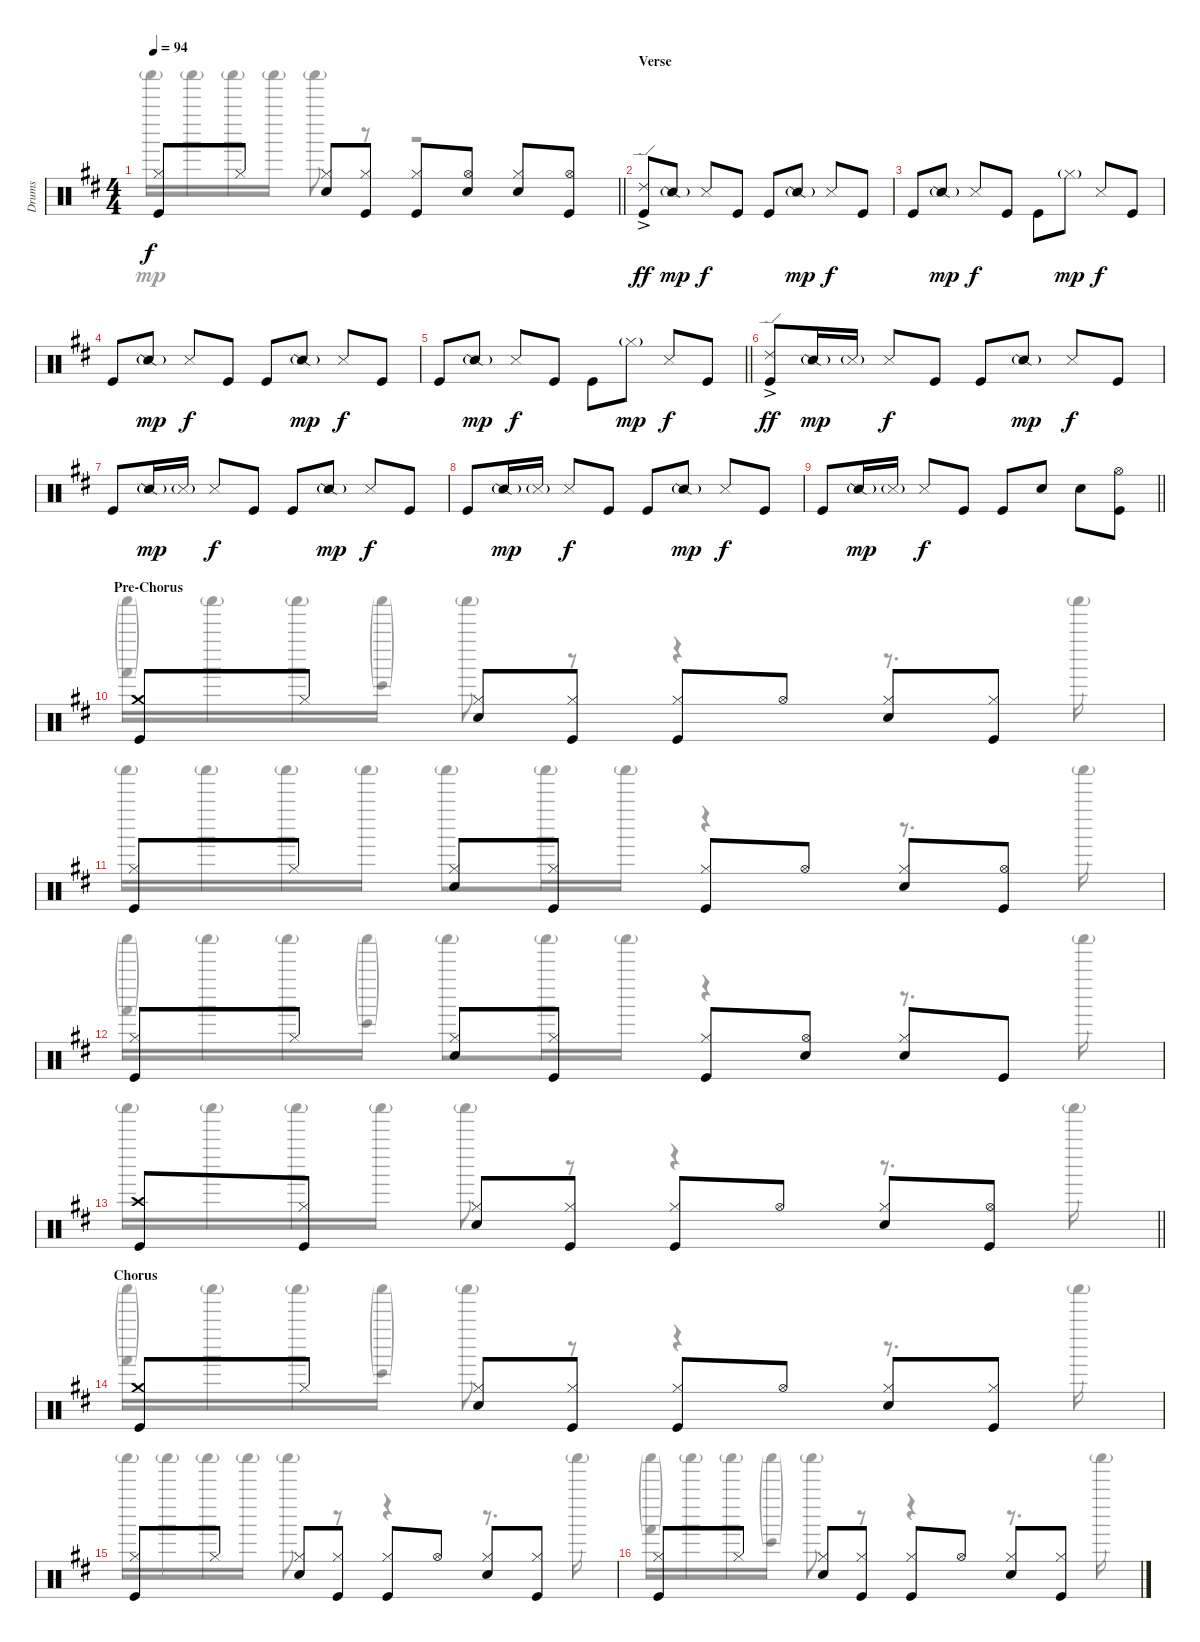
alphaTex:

\track ("Drums" "Drums") {instrument percussion}
\staff {score}
\articulation defaults
\voice
\ts (4 4)
\tempo 94
\clef neutral
\barLineRight lightlight
\ks d
("Hi-Hat (closed)" "Kick (hit)").8{dy f} "Hi-Hat (closed)".8 ("Hi-Hat (closed)" "Snare (hit) 2").8 ("Hi-Hat (closed)" "Kick (hit)").8 ("Hi-Hat (closed)" "Kick (hit)").8 ("Hi-Hat (open)" "Snare (hit) 2").8 ("Hi-Hat (closed)" "Snare (hit) 2").8 ("Hi-Hat (open)" "Kick (hit)").8 |
\section ("" "Verse")
("Ride (edge) 2"{ac} "Kick (hit)").8{dy ff} "Snare (side stick) 2"{g}.8{dy mp} "Snare (side stick) 3".8{dy f} "Kick (hit)".8 "Kick (hit)".8 "Snare (side stick) 2"{g}.8{dy mp} "Snare (side stick) 3".8{dy f} "Kick (hit)".8 |
"Kick (hit)".8 "Snare (side stick) 2"{g}.8{dy mp} "Snare (side stick) 3".8{dy f} "Kick (hit)".8 "Kick (hit)".8 "Hi-Hat (closed)"{g}.8{dy mp} "Snare (side stick) 3".8{dy f} "Kick (hit)".8 |
"Kick (hit)".8 "Snare (side stick) 2"{g}.8{dy mp} "Snare (side stick) 3".8{dy f} "Kick (hit)".8 "Kick (hit)".8 "Snare (side stick) 2"{g}.8{dy mp} "Snare (side stick) 3".8{dy f} "Kick (hit)".8 |
\barLineRight lightlight "Kick (hit)".8 "Snare (side stick) 2"{g}.8{dy mp} "Snare (side stick) 3".8{dy f} "Kick (hit)".8 "Kick (hit)".8 "Hi-Hat (closed)"{g}.8{dy mp} "Snare (side stick) 3".8{dy f} "Kick (hit)".8
|
\section ("" "")
("Ride (edge) 2"{ac} "Kick (hit)").8{dy ff} "Snare (side stick) 2"{g}.16{dy mp} "Metronome (hit)"{g}.16 "Snare (side stick) 3".8{dy f} "Kick (hit)".8 "Kick (hit)".8 "Snare (side stick) 2"{g}.8{dy mp} "Snare (side stick) 3".8{dy f} "Kick (hit)".8 |
"Kick (hit)".8 "Snare (side stick) 2"{g}.16{dy mp} "Metronome (hit)"{g}.16 "Snare (side stick) 3".8{dy f} "Kick (hit)".8 "Kick (hit)".8 "Snare (side stick) 2"{g}.8{dy mp} "Snare (side stick) 3".8{dy f} "Kick (hit)".8 |
"Kick (hit)".8 "Snare (side stick) 2"{g}.16{dy mp} "Metronome (hit)"{g}.16 "Snare (side stick) 3".8{dy f} "Kick (hit)".8 "Kick (hit)".8 "Snare (side stick) 2"{g}.8{dy mp} "Snare (side stick) 3".8{dy f} "Kick (hit)".8 |
\barLineRight lightlight "Kick (hit)".8 "Snare (side stick) 2"{g}.16{dy mp} "Metronome (hit)"{g}.16 "Snare (side stick) 3".8{dy f} "Kick (hit)".8 "Kick (hit)".8 "Snare (hit) 2".8 "Snare (hit) 2".8
("Hi-Hat (open)" "Kick (hit)").8 |
\section ("" "Pre-Chorus")
("Crash medium (hit)" "Kick (hit)").8 "Hi-Hat (closed)".8 ("Hi-Hat (closed)" "Snare (hit) 2").8 ("Hi-Hat (closed)" "Kick (hit)").8 ("Hi-Hat (closed)" "Kick (hit)").8 "Hi-Hat (open)".8 ("Hi-Hat (closed)" "Snare (hit) 2").8 ("Hi-Hat (closed)" "Kick (hit)").8 |
("Hi-Hat (closed)" "Kick (hit)").8 "Hi-Hat (closed)".8 ("Hi-Hat (closed)" "Snare (hit) 2").8 ("Hi-Hat (closed)" "Kick (hit)").8 ("Hi-Hat (closed)" "Kick (hit)").8 "Hi-Hat (open)".8 ("Hi-Hat (closed)" "Snare (hit) 2").8 ("Hi-Hat (open)" "Kick (hit)").8 |
("Hi-Hat (closed)" "Kick (hit)").8 "Hi-Hat (closed)".8 ("Hi-Hat (closed)" "Snare (hit) 2").8 ("Hi-Hat (closed)" "Kick (hit)").8 ("Hi-Hat (closed)" "Kick (hit)").8 ("Hi-Hat (open)" "Snare (hit) 2").8 ("Hi-Hat (closed)" "Snare (hit) 2").8 "Kick (hit)".8 |
\barLineRight lightlight
("Crash high (hit)" "Kick (hit)").8 ("Hi-Hat (closed)" "Kick (hit)").8 ("Hi-Hat (closed)" "Snare (hit) 2").8 ("Hi-Hat (closed)" "Kick (hit)").8 ("Hi-Hat (closed)" "Kick (hit)").8 "Hi-Hat (open)".8 ("Hi-Hat (closed)" "Snare (hit) 2").8 ("Hi-Hat (open)" "Kick (hit)").8 |
\section ("" "Chorus")
("Crash medium (hit)" "Kick (hit)").8 "Hi-Hat (closed)".8 ("Hi-Hat (closed)" "Snare (hit) 2").8 ("Hi-Hat (closed)" "Kick (hit)").8 ("Hi-Hat (closed)" "Kick (hit)").8 "Hi-Hat (open)".8 ("Hi-Hat (closed)" "Snare (hit) 2").8 ("Hi-Hat (closed)" "Kick (hit)").8 |
("Hi-Hat (closed)" "Kick (hit)").8 "Hi-Hat (closed)".8 ("Hi-Hat (closed)" "Snare (hit) 2").8 ("Hi-Hat (closed)" "Kick (hit)").8 ("Hi-Hat (closed)" "Kick (hit)").8 "Hi-Hat (open)".8 ("Hi-Hat (closed)" "Snare (hit) 2").8 ("Hi-Hat (closed)" "Kick (hit)").8 |
("Hi-Hat (closed)" "Kick (hit)").8 "Hi-Hat (closed)".8 ("Hi-Hat (closed)" "Snare (hit) 2").8 ("Hi-Hat (closed)" "Kick (hit)").8 ("Hi-Hat (closed)" "Kick (hit)").8 "Hi-Hat (open)".8 ("Hi-Hat (closed)" "Snare (hit) 2").8 ("Hi-Hat (closed)" "Kick (hit)").8
\voice
\clef neutral
\ottava regular
\simile none
\barLineRight lightlight
\ks d "Shaker (hit)"{g}.16{dy mp} "Shaker (hit)"{g}.16 "Shaker (hit)"{g}.16 "Shaker (hit)"{g}.16 "Shaker (hit)"{g}.8
r.8 r.2 |
|
|
|
\barLineRight lightlight
|
|
|
|
\barLineRight lightlight
|
("Shaker (hit)"{g} "Hand (hit)"{g}).16 "Shaker (hit)"{g}.16 "Shaker (hit)"{g}.16 ("Shaker (hit)"{g} "Bongo High (hit)"{g}).16 "Shaker (hit)"{g}.8 r.8 r.4 r.8{d} "Shaker (hit)"{g}.16 |
"Shaker (hit)"{g}.16 "Shaker (hit)"{g}.16 "Shaker (hit)"{g}.16 "Shaker (hit)"{g}.16 "Shaker (hit)"{g}.8 "Shaker (hit)"{g}.16 "Shaker (hit)"{g}.16 r.4 r.8{d} "Shaker (hit)"{g}.16 |
("Shaker (hit)"{g} "Hand (hit)"{g}).16 "Shaker (hit)"{g}.16 "Shaker (hit)"{g}.16 ("Shaker (hit)"{g} "Bongo High (hit)"{g}).16 "Shaker (hit)"{g}.8 "Shaker (hit)"{g}.16 "Shaker (hit)"{g}.16 r.4 r.8{d} "Shaker (hit)"{g}.16 |
\barLineRight lightlight "Shaker (hit)"{g}.16 "Shaker (hit)"{g}.16 "Shaker (hit)"{g}.16 "Shaker (hit)"{g}.16 "Shaker (hit)"{g}.8
r.8 r.4 r.8{d} "Shaker (hit)"{g}.16 |
("Shaker (hit)"{g} "Hand (hit)"{g}).16 "Shaker (hit)"{g}.16 "Shaker (hit)"{g}.16 ("Shaker (hit)"{g} "Bongo High (hit)"{g}).16 "Shaker (hit)"{g}.8 r.8 r.4 r.8{d} "Shaker (hit)"{g}.16 |
"Shaker (hit)"{g}.16 "Shaker (hit)"{g}.16 "Shaker (hit)"{g}.16 "Shaker (hit)"{g}.16 "Shaker (hit)"{g}.8 r.8 r.4 r.8{d} "Shaker (hit)"{g}.16 |
("Shaker (hit)"{g} "Hand (hit)"{g}).16 "Shaker (hit)"{g}.16 "Shaker (hit)"{g}.16 ("Shaker (hit)"{g} "Bongo High (hit)"{g}).16 "Shaker (hit)"{g}.8 r.8 r.4 r.8{d} "Shaker (hit)"{g}.16
